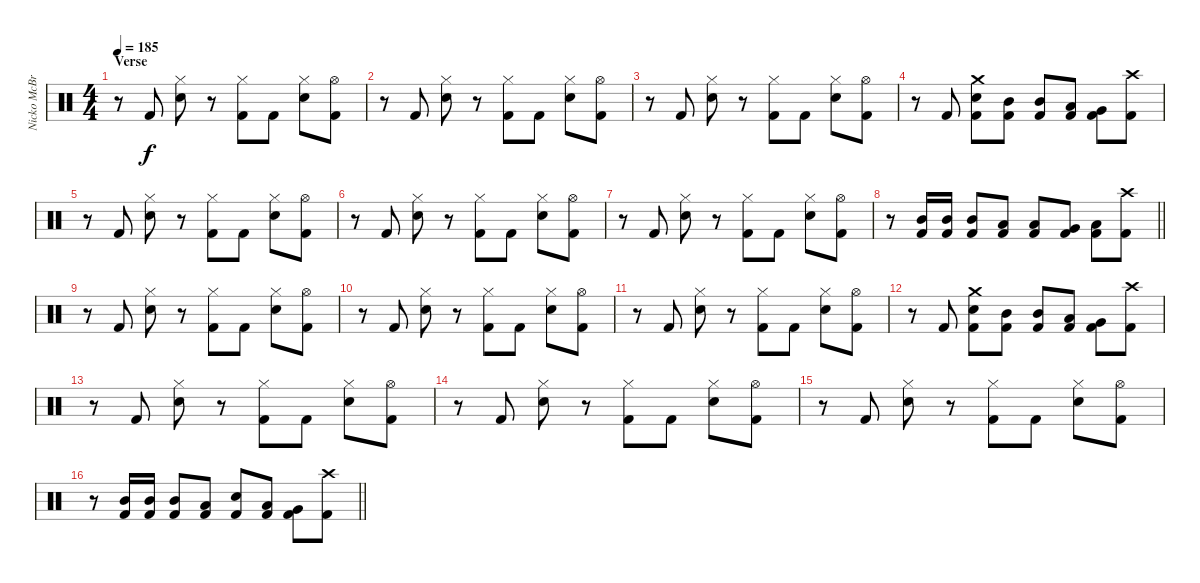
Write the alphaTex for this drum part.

\track ("Nicko McBrain" "Nicko McBr") {instrument percussion}
\staff {score}
\articulation defaults
\ts (4 4)
\section ("" "Verse")
\tempo 185
\clef neutral
\ks c
r.8{dy f} "Kick (hit) 2".8 ("Hi-Hat (closed)" "Snare (hit) 2").8 r.8 ("Hi-Hat (closed)" "Kick (hit) 2").8 "Kick (hit) 2".8 ("Hi-Hat (closed)" "Snare (hit) 2").8 ("Hi-Hat (open)" "Kick (hit) 2").8 |
r.8 "Kick (hit) 2".8 ("Hi-Hat (closed)" "Snare (hit) 2").8 r.8 ("Hi-Hat (closed)" "Kick (hit) 2").8 "Kick (hit) 2".8 ("Hi-Hat (closed)" "Snare (hit) 2").8 ("Hi-Hat (open)" "Kick (hit) 2").8 |
r.8 "Kick (hit) 2".8 ("Hi-Hat (closed)" "Snare (hit) 2").8 r.8 ("Hi-Hat (closed)" "Kick (hit) 2").8 "Kick (hit) 2".8 ("Hi-Hat (closed)" "Snare (hit) 2").8 ("Hi-Hat (open)" "Kick (hit) 2").8 |
r.8 "Kick (hit) 2".8 ("Crash medium (hit)" "Snare (hit) 2" "Kick (hit) 2").8 ("Mid Tom (hit)" "Kick (hit) 2").8 ("Mid Tom (hit)" "Kick (hit) 2").8 ("Low Tom (hit)" "Kick (hit) 2").8 ("Very Low Tom (hit)" "Kick (hit) 2").8 ("Crash high (hit)" "Kick (hit) 2").8 |
r.8 "Kick (hit) 2".8 ("Hi-Hat (closed)" "Snare (hit) 2").8 r.8 ("Hi-Hat (closed)" "Kick (hit) 2").8 "Kick (hit) 2".8 ("Hi-Hat (closed)" "Snare (hit) 2").8 ("Hi-Hat (open)" "Kick (hit) 2").8 |
r.8 "Kick (hit) 2".8 ("Hi-Hat (closed)" "Snare (hit) 2").8 r.8 ("Hi-Hat (closed)" "Kick (hit) 2").8 "Kick (hit) 2".8 ("Hi-Hat (closed)" "Snare (hit) 2").8 ("Hi-Hat (open)" "Kick (hit) 2").8 |
r.8 "Kick (hit) 2".8 ("Hi-Hat (closed)" "Snare (hit) 2").8 r.8 ("Hi-Hat (closed)" "Kick (hit) 2").8 "Kick (hit) 2".8 ("Hi-Hat (closed)" "Snare (hit) 2").8 ("Hi-Hat (open)" "Kick (hit) 2").8 |
\barLineRight lightlight
r.8 ("Mid Tom (hit)" "Kick (hit) 2").16 ("Mid Tom (hit)" "Kick (hit) 2").16 ("Mid Tom (hit)" "Kick (hit) 2").8 ("Low Tom (hit)" "Kick (hit) 2").8 ("Low Tom (hit)" "Kick (hit) 2").8 ("Very Low Tom (hit)" "Kick (hit) 2").8 ("Low Floor Tom (hit)" "Kick (hit) 2").8 ("Crash high (hit)" "Kick (hit) 2").8 |
r.8 "Kick (hit) 2".8 ("Hi-Hat (closed)" "Snare (hit) 2").8 r.8 ("Hi-Hat (closed)" "Kick (hit) 2").8 "Kick (hit) 2".8 ("Hi-Hat (closed)" "Snare (hit) 2").8 ("Hi-Hat (open)" "Kick (hit) 2").8 |
r.8 "Kick (hit) 2".8 ("Hi-Hat (closed)" "Snare (hit) 2").8 r.8 ("Hi-Hat (closed)" "Kick (hit) 2").8 "Kick (hit) 2".8 ("Hi-Hat (closed)" "Snare (hit) 2").8 ("Hi-Hat (open)" "Kick (hit) 2").8 |
r.8 "Kick (hit) 2".8 ("Hi-Hat (closed)" "Snare (hit) 2").8 r.8 ("Hi-Hat (closed)" "Kick (hit) 2").8 "Kick (hit) 2".8 ("Hi-Hat (closed)" "Snare (hit) 2").8 ("Hi-Hat (open)" "Kick (hit) 2").8 |
r.8 "Kick (hit) 2".8 ("Crash medium (hit)" "Snare (hit) 2" "Kick (hit) 2").8 ("Mid Tom (hit)" "Kick (hit) 2").8 ("Mid Tom (hit)" "Kick (hit) 2").8 ("Low Tom (hit)" "Kick (hit) 2").8 ("Very Low Tom (hit)" "Kick (hit) 2").8 ("Crash high (hit)" "Kick (hit) 2").8 |
r.8 "Kick (hit) 2".8 ("Hi-Hat (closed)" "Snare (hit) 2").8 r.8 ("Hi-Hat (closed)" "Kick (hit) 2").8 "Kick (hit) 2".8 ("Hi-Hat (closed)" "Snare (hit) 2").8 ("Hi-Hat (open)" "Kick (hit) 2").8 |
r.8 "Kick (hit) 2".8 ("Hi-Hat (closed)" "Snare (hit) 2").8 r.8 ("Hi-Hat (closed)" "Kick (hit) 2").8 "Kick (hit) 2".8 ("Hi-Hat (closed)" "Snare (hit) 2").8 ("Hi-Hat (open)" "Kick (hit) 2").8 |
r.8 "Kick (hit) 2".8 ("Hi-Hat (closed)" "Snare (hit) 2").8 r.8 ("Hi-Hat (closed)" "Kick (hit) 2").8 "Kick (hit) 2".8 ("Hi-Hat (closed)" "Snare (hit) 2").8 ("Hi-Hat (open)" "Kick (hit) 2").8 |
\barLineRight lightlight
r.8 ("Mid Tom (hit)" "Kick (hit) 2").16 ("Mid Tom (hit)" "Kick (hit) 2").16 ("Mid Tom (hit)" "Kick (hit) 2").8 ("Low Tom (hit)" "Kick (hit) 2").8 ("Snare (hit) 2" "Kick (hit) 2").8 ("Low Tom (hit)" "Kick (hit) 2").8 ("Very Low Tom (hit)" "Kick (hit) 2").8 ("Crash high (hit)" "Kick (hit) 2").8
